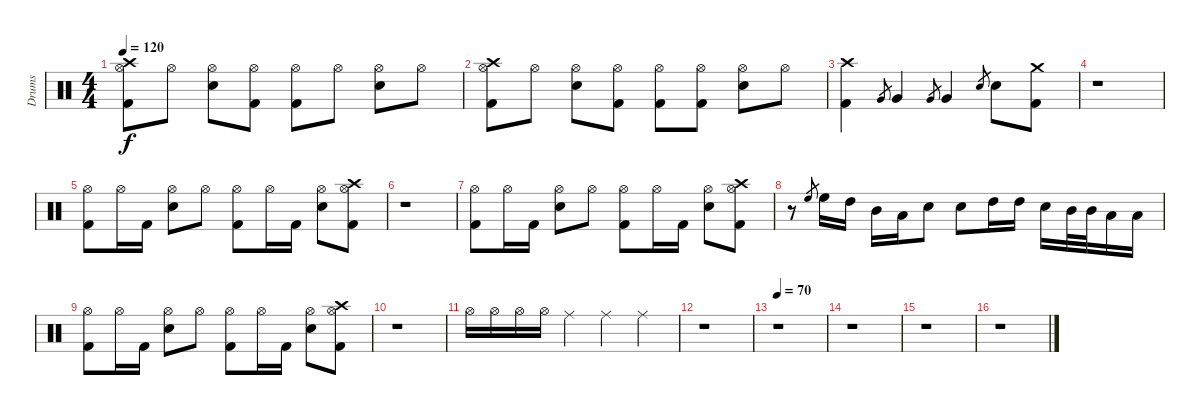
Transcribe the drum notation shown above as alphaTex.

\track ("Drums" "Drums") {instrument percussion}
\staff {score}
\articulation defaults
\ts (4 4)
\tempo 120
\clef neutral
\ks c
("Kick (hit) 2" "Hi-Hat (open)" "Crash high (hit)").8{dy f} "Hi-Hat (open)".8 ("Snare (hit) 2" "Hi-Hat (open)").8 ("Kick (hit) 2" "Hi-Hat (open)").8 ("Kick (hit) 2" "Hi-Hat (open)").8 "Hi-Hat (open)".8 ("Snare (hit) 2" "Hi-Hat (open)").8 "Hi-Hat (open)".8 |
("Kick (hit) 2" "Hi-Hat (open)" "Crash high (hit)").8 "Hi-Hat (open)".8 ("Snare (hit) 2" "Hi-Hat (open)").8 ("Kick (hit) 2" "Hi-Hat (open)").8 ("Kick (hit) 2" "Hi-Hat (open)").8 ("Kick (hit) 2" "Hi-Hat (open)").8 ("Snare (hit) 2" "Hi-Hat (open)").8 "Hi-Hat (open)".8 |
("Kick (hit) 2" "Crash high (hit)").4 "Very Low Tom (hit)".8{gr} "Very Low Tom (hit)".4 "Very Low Tom (hit)".8{gr} "Very Low Tom (hit)".4 "Snare (hit) 2".8{gr} "Snare (hit) 2".8 ("Kick (hit) 2" "Crash medium (hit)").8 |
r.1 |
("Kick (hit) 2" "Hi-Hat (open)").8 "Hi-Hat (open)".16 "Kick (hit) 2".16 ("Snare (hit) 2" "Hi-Hat (open)").8 "Hi-Hat (open)".8 ("Kick (hit) 2" "Hi-Hat (open)").8 "Hi-Hat (open)".16 "Kick (hit) 2".16 ("Snare (hit) 2" "Hi-Hat (open)").8 ("Kick (hit) 2" "Hi-Hat (open)" "Crash high (hit)").8 |
r.1 |
("Kick (hit) 2" "Hi-Hat (open)").8 "Hi-Hat (open)".16 "Kick (hit) 2".16 ("Snare (hit) 2" "Hi-Hat (open)").8 "Hi-Hat (open)".8 ("Kick (hit) 2" "Hi-Hat (open)").8 "Hi-Hat (open)".16 "Kick (hit) 2".16 ("Snare (hit) 2" "Hi-Hat (open)").8 ("Kick (hit) 2" "Hi-Hat (open)" "Crash high (hit)").8 |
r.8 "High Floor Tom (hit)".8{gr} "High Floor Tom (hit)".16 "High Tom (hit)".16 "Mid Tom (hit)".16 "Low Tom (hit)".16 "Snare (hit) 2".8 "Snare (hit) 2".8 "High Tom (hit)".16 "High Tom (hit)".16 "Snare (hit) 2".16 "Mid Tom (hit)".32 "Mid Tom (hit)".32 "Low Tom (hit)".16 "Low Tom (hit)".16 |
("Kick (hit) 2" "Hi-Hat (open)").8 "Hi-Hat (open)".16 "Kick (hit) 2".16 ("Snare (hit) 2" "Hi-Hat (open)").8 "Hi-Hat (open)".8 ("Kick (hit) 2" "Hi-Hat (open)").8 "Hi-Hat (open)".16 "Kick (hit) 2".16 ("Snare (hit) 2" "Hi-Hat (open)").8 ("Kick (hit) 2" "Hi-Hat (open)" "Crash high (hit)").8 |
r.1 |
"Hi-Hat (open)".16 "Hi-Hat (open)".16 "Hi-Hat (open)".16 "Hi-Hat (open)".16 "Ride (middle)".4 "Ride (middle)".4 "Ride (middle)".4 |
r.1 |
\tempo 70
r.1 |
r.1 |
r.1 |
r.1
